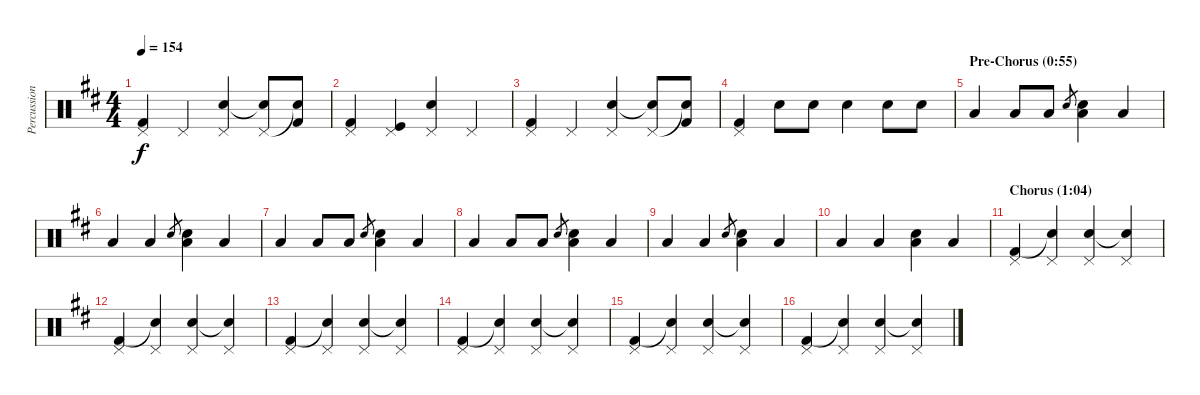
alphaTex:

\track ("Percussion" "Percussion") {instrument percussion}
\staff {score}
\articulation defaults
\ts (4 4)
\tempo 154
\clef neutral
\ks d
("Kick (hit) 2" "Pedal Hi-Hat (hit)").4{dy f} "Pedal Hi-Hat (hit)".4 ("Electric Snare (hit)" "Pedal Hi-Hat (hit)").4 ("Snare (hit)"{t} "Pedal Hi-Hat (hit)").8 ("Kick (hit) 2" "Snare (hit)"{t}).8 |
("Kick (hit) 2" "Pedal Hi-Hat (hit)").4 ("Kick (hit)" "Pedal Hi-Hat (hit)").4 ("Electric Snare (hit)" "Pedal Hi-Hat (hit)").4 "Pedal Hi-Hat (hit)".4 |
("Kick (hit) 2" "Pedal Hi-Hat (hit)").4 "Pedal Hi-Hat (hit)".4 ("Electric Snare (hit)" "Pedal Hi-Hat (hit)").4 ("Snare (hit)"{t} "Pedal Hi-Hat (hit)").8 ("Kick (hit) 2" "Snare (hit)"{t}).8 |
("Kick (hit) 2" "Pedal Hi-Hat (hit)").4 "Electric Snare (hit)".8 "Electric Snare (hit)".8 "Electric Snare (hit)".4 "Electric Snare (hit)".8 "Electric Snare (hit)".8 |
\section ("" "Pre-Chorus (0:55)")
"Low Floor Tom (hit)".4 "Low Floor Tom (hit)".8 "Low Floor Tom (hit)".8 "Electric Snare (hit)".8{gr} ("Low Floor Tom (hit)" "Electric Snare (hit)").4 "Low Tom (hit)".4 |
"Low Floor Tom (hit)".4 "Low Floor Tom (hit)".4 "Electric Snare (hit)".8{gr} ("Low Floor Tom (hit)" "Electric Snare (hit)").4 "Low Tom (hit)".4 |
"Low Floor Tom (hit)".4 "Low Floor Tom (hit)".8 "Low Floor Tom (hit)".8 "Electric Snare (hit)".8{gr} ("Low Floor Tom (hit)" "Electric Snare (hit)").4 "Low Tom (hit)".4 |
"Low Floor Tom (hit)".4 "Low Floor Tom (hit)".8 "Low Floor Tom (hit)".8 "Electric Snare (hit)".8{gr} ("Low Floor Tom (hit)" "Electric Snare (hit)").4 "Low Tom (hit)".4 |
"Low Floor Tom (hit)".4 "Low Floor Tom (hit)".4 "Electric Snare (hit)".8{gr} ("Low Floor Tom (hit)" "Electric Snare (hit)").4 "Low Tom (hit)".4 |
"Low Floor Tom (hit)".4 "Low Floor Tom (hit)".4 ("Low Floor Tom (hit)" "Electric Snare (hit)").4 "Low Tom (hit)".4 |
\section ("" "Chorus (1:04)")
("Kick (hit) 2" "Pedal Hi-Hat (hit)").4 ("Snare (hit)"{t} "Pedal Hi-Hat (hit)").4 ("Electric Snare (hit)" "Pedal Hi-Hat (hit)").4 ("Snare (hit)"{t} "Pedal Hi-Hat (hit)").4 |
("Kick (hit) 2" "Pedal Hi-Hat (hit)").4 ("Snare (hit)"{t} "Pedal Hi-Hat (hit)").4 ("Electric Snare (hit)" "Pedal Hi-Hat (hit)").4 ("Snare (hit)"{t} "Pedal Hi-Hat (hit)").4 |
("Kick (hit) 2" "Pedal Hi-Hat (hit)").4 ("Snare (hit)"{t} "Pedal Hi-Hat (hit)").4 ("Electric Snare (hit)" "Pedal Hi-Hat (hit)").4 ("Snare (hit)"{t} "Pedal Hi-Hat (hit)").4 |
("Kick (hit) 2" "Pedal Hi-Hat (hit)").4 ("Snare (hit)"{t} "Pedal Hi-Hat (hit)").4 ("Electric Snare (hit)" "Pedal Hi-Hat (hit)").4 ("Snare (hit)"{t} "Pedal Hi-Hat (hit)").4 |
("Kick (hit) 2" "Pedal Hi-Hat (hit)").4 ("Snare (hit)"{t} "Pedal Hi-Hat (hit)").4 ("Electric Snare (hit)" "Pedal Hi-Hat (hit)").4 ("Snare (hit)"{t} "Pedal Hi-Hat (hit)").4 |
("Kick (hit) 2" "Pedal Hi-Hat (hit)").4 ("Snare (hit)"{t} "Pedal Hi-Hat (hit)").4 ("Electric Snare (hit)" "Pedal Hi-Hat (hit)").4 ("Snare (hit)"{t} "Pedal Hi-Hat (hit)").4
